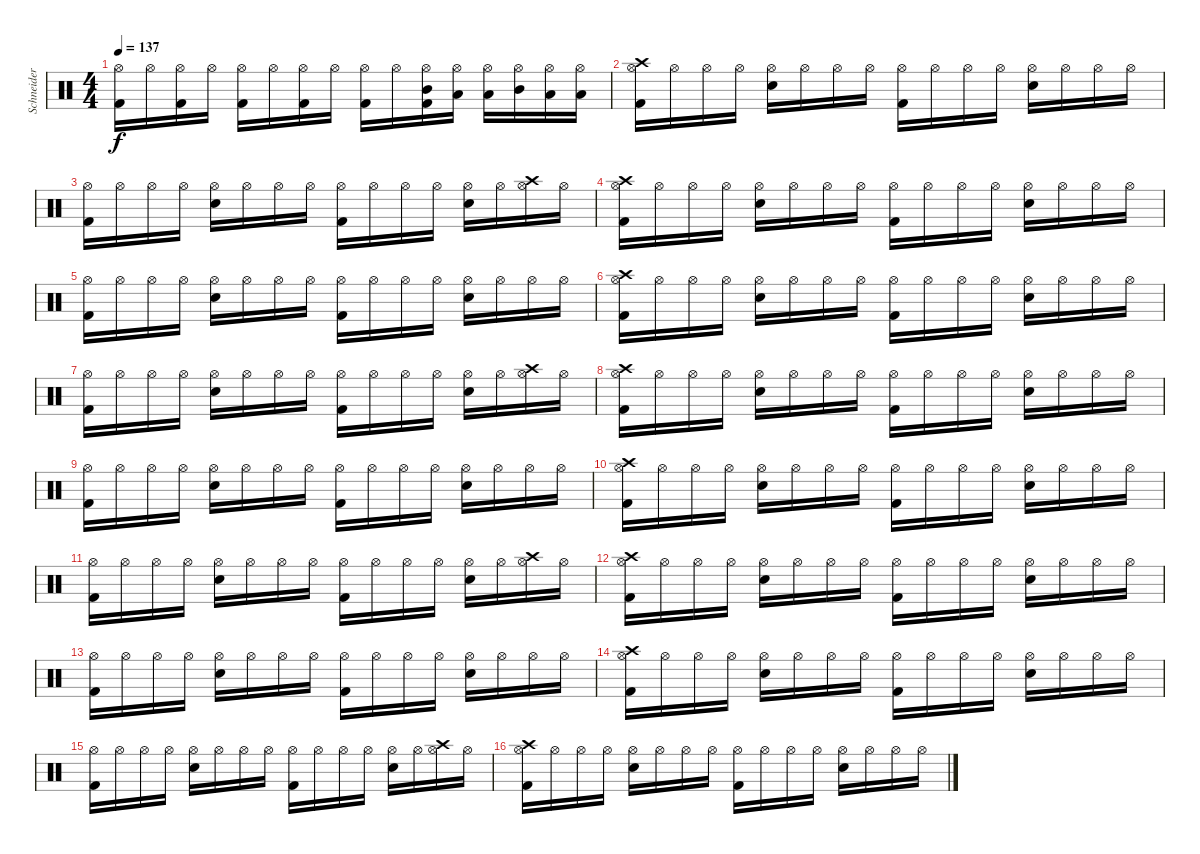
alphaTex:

\track ("Schneider" "Schneider") {instrument percussion}
\staff {score}
\articulation defaults
\ts (4 4)
\tempo 137
\clef neutral
\ks c
("Hi-Hat (open)" "Kick (hit) 2").16{dy f} "Hi-Hat (open)".16 ("Hi-Hat (open)" "Kick (hit) 2").16 "Hi-Hat (open)".16 ("Hi-Hat (open)" "Kick (hit) 2").16 "Hi-Hat (open)".16 ("Hi-Hat (open)" "Kick (hit) 2").16 "Hi-Hat (open)".16 ("Hi-Hat (open)" "Kick (hit) 2").16 "Hi-Hat (open)".16 ("Hi-Hat (open)" "Mid Tom (hit)" "Kick (hit) 2").16 ("Hi-Hat (open)" "Low Tom (hit)").16 ("Hi-Hat (open)" "Low Floor Tom (hit)").16 ("Hi-Hat (open)" "Mid Tom (hit)").16 ("Hi-Hat (open)" "Low Tom (hit)").16 ("Hi-Hat (open)" "Low Floor Tom (hit)").16 |
("Crash high (hit)" "Hi-Hat (open)" "Kick (hit) 2").16 "Hi-Hat (open)".16 "Hi-Hat (open)".16 "Hi-Hat (open)".16 ("Hi-Hat (open)" "Electric Snare (hit)").16 "Hi-Hat (open)".16 "Hi-Hat (open)".16 "Hi-Hat (open)".16 ("Hi-Hat (open)" "Kick (hit) 2").16 "Hi-Hat (open)".16 "Hi-Hat (open)".16 "Hi-Hat (open)".16 ("Hi-Hat (open)" "Electric Snare (hit)").16 "Hi-Hat (open)".16 "Hi-Hat (open)".16 "Hi-Hat (open)".16 |
("Hi-Hat (open)" "Kick (hit) 2").16 "Hi-Hat (open)".16 "Hi-Hat (open)".16 "Hi-Hat (open)".16 ("Hi-Hat (open)" "Electric Snare (hit)").16 "Hi-Hat (open)".16 "Hi-Hat (open)".16 "Hi-Hat (open)".16 ("Hi-Hat (open)" "Kick (hit) 2").16 "Hi-Hat (open)".16 "Hi-Hat (open)".16 "Hi-Hat (open)".16 ("Hi-Hat (open)" "Electric Snare (hit)").16 "Hi-Hat (open)".16 ("Crash high (hit)" "Hi-Hat (open)").16 "Hi-Hat (open)".16 |
("Crash high (hit)" "Hi-Hat (open)" "Kick (hit) 2").16 "Hi-Hat (open)".16 "Hi-Hat (open)".16 "Hi-Hat (open)".16 ("Hi-Hat (open)" "Electric Snare (hit)").16 "Hi-Hat (open)".16 "Hi-Hat (open)".16 "Hi-Hat (open)".16 ("Hi-Hat (open)" "Kick (hit) 2").16 "Hi-Hat (open)".16 "Hi-Hat (open)".16 "Hi-Hat (open)".16 ("Hi-Hat (open)" "Electric Snare (hit)").16 "Hi-Hat (open)".16 "Hi-Hat (open)".16 "Hi-Hat (open)".16 |
("Hi-Hat (open)" "Kick (hit) 2").16 "Hi-Hat (open)".16 "Hi-Hat (open)".16 "Hi-Hat (open)".16 ("Hi-Hat (open)" "Electric Snare (hit)").16 "Hi-Hat (open)".16 "Hi-Hat (open)".16 "Hi-Hat (open)".16 ("Hi-Hat (open)" "Kick (hit) 2").16 "Hi-Hat (open)".16 "Hi-Hat (open)".16 "Hi-Hat (open)".16 ("Hi-Hat (open)" "Electric Snare (hit)").16 "Hi-Hat (open)".16 "Hi-Hat (open)".16 "Hi-Hat (open)".16 |
("Crash high (hit)" "Hi-Hat (open)" "Kick (hit) 2").16 "Hi-Hat (open)".16 "Hi-Hat (open)".16 "Hi-Hat (open)".16 ("Hi-Hat (open)" "Electric Snare (hit)").16 "Hi-Hat (open)".16 "Hi-Hat (open)".16 "Hi-Hat (open)".16 ("Hi-Hat (open)" "Kick (hit) 2").16 "Hi-Hat (open)".16 "Hi-Hat (open)".16 "Hi-Hat (open)".16 ("Hi-Hat (open)" "Electric Snare (hit)").16 "Hi-Hat (open)".16 "Hi-Hat (open)".16 "Hi-Hat (open)".16 |
("Hi-Hat (open)" "Kick (hit) 2").16 "Hi-Hat (open)".16 "Hi-Hat (open)".16 "Hi-Hat (open)".16 ("Hi-Hat (open)" "Electric Snare (hit)").16 "Hi-Hat (open)".16 "Hi-Hat (open)".16 "Hi-Hat (open)".16 ("Hi-Hat (open)" "Kick (hit) 2").16 "Hi-Hat (open)".16 "Hi-Hat (open)".16 "Hi-Hat (open)".16 ("Hi-Hat (open)" "Electric Snare (hit)").16 "Hi-Hat (open)".16 ("Crash high (hit)" "Hi-Hat (open)").16 "Hi-Hat (open)".16 |
("Crash high (hit)" "Hi-Hat (open)" "Kick (hit) 2").16 "Hi-Hat (open)".16 "Hi-Hat (open)".16 "Hi-Hat (open)".16 ("Hi-Hat (open)" "Electric Snare (hit)").16 "Hi-Hat (open)".16 "Hi-Hat (open)".16 "Hi-Hat (open)".16 ("Hi-Hat (open)" "Kick (hit) 2").16 "Hi-Hat (open)".16 "Hi-Hat (open)".16 "Hi-Hat (open)".16 ("Hi-Hat (open)" "Electric Snare (hit)").16 "Hi-Hat (open)".16 "Hi-Hat (open)".16 "Hi-Hat (open)".16 |
("Hi-Hat (open)" "Kick (hit) 2").16 "Hi-Hat (open)".16 "Hi-Hat (open)".16 "Hi-Hat (open)".16 ("Hi-Hat (open)" "Electric Snare (hit)").16 "Hi-Hat (open)".16 "Hi-Hat (open)".16 "Hi-Hat (open)".16 ("Hi-Hat (open)" "Kick (hit) 2").16 "Hi-Hat (open)".16 "Hi-Hat (open)".16 "Hi-Hat (open)".16 ("Hi-Hat (open)" "Electric Snare (hit)").16 "Hi-Hat (open)".16 "Hi-Hat (open)".16 "Hi-Hat (open)".16 |
("Crash high (hit)" "Hi-Hat (open)" "Kick (hit) 2").16 "Hi-Hat (open)".16 "Hi-Hat (open)".16 "Hi-Hat (open)".16 ("Hi-Hat (open)" "Electric Snare (hit)").16 "Hi-Hat (open)".16 "Hi-Hat (open)".16 "Hi-Hat (open)".16 ("Hi-Hat (open)" "Kick (hit) 2").16 "Hi-Hat (open)".16 "Hi-Hat (open)".16 "Hi-Hat (open)".16 ("Hi-Hat (open)" "Electric Snare (hit)").16 "Hi-Hat (open)".16 "Hi-Hat (open)".16 "Hi-Hat (open)".16 |
("Hi-Hat (open)" "Kick (hit) 2").16 "Hi-Hat (open)".16 "Hi-Hat (open)".16 "Hi-Hat (open)".16 ("Hi-Hat (open)" "Electric Snare (hit)").16 "Hi-Hat (open)".16 "Hi-Hat (open)".16 "Hi-Hat (open)".16 ("Hi-Hat (open)" "Kick (hit) 2").16 "Hi-Hat (open)".16 "Hi-Hat (open)".16 "Hi-Hat (open)".16 ("Hi-Hat (open)" "Electric Snare (hit)").16 "Hi-Hat (open)".16 ("Crash high (hit)" "Hi-Hat (open)").16 "Hi-Hat (open)".16 |
("Crash high (hit)" "Hi-Hat (open)" "Kick (hit) 2").16 "Hi-Hat (open)".16 "Hi-Hat (open)".16 "Hi-Hat (open)".16 ("Hi-Hat (open)" "Electric Snare (hit)").16 "Hi-Hat (open)".16 "Hi-Hat (open)".16 "Hi-Hat (open)".16 ("Hi-Hat (open)" "Kick (hit) 2").16 "Hi-Hat (open)".16 "Hi-Hat (open)".16 "Hi-Hat (open)".16 ("Hi-Hat (open)" "Electric Snare (hit)").16 "Hi-Hat (open)".16 "Hi-Hat (open)".16 "Hi-Hat (open)".16 |
("Hi-Hat (open)" "Kick (hit) 2").16 "Hi-Hat (open)".16 "Hi-Hat (open)".16 "Hi-Hat (open)".16 ("Hi-Hat (open)" "Electric Snare (hit)").16 "Hi-Hat (open)".16 "Hi-Hat (open)".16 "Hi-Hat (open)".16 ("Hi-Hat (open)" "Kick (hit) 2").16 "Hi-Hat (open)".16 "Hi-Hat (open)".16 "Hi-Hat (open)".16 ("Hi-Hat (open)" "Electric Snare (hit)").16 "Hi-Hat (open)".16 "Hi-Hat (open)".16 "Hi-Hat (open)".16 |
("Crash high (hit)" "Hi-Hat (open)" "Kick (hit) 2").16 "Hi-Hat (open)".16 "Hi-Hat (open)".16 "Hi-Hat (open)".16 ("Hi-Hat (open)" "Electric Snare (hit)").16 "Hi-Hat (open)".16 "Hi-Hat (open)".16 "Hi-Hat (open)".16 ("Hi-Hat (open)" "Kick (hit) 2").16 "Hi-Hat (open)".16 "Hi-Hat (open)".16 "Hi-Hat (open)".16 ("Hi-Hat (open)" "Electric Snare (hit)").16 "Hi-Hat (open)".16 "Hi-Hat (open)".16 "Hi-Hat (open)".16 |
("Hi-Hat (open)" "Kick (hit) 2").16 "Hi-Hat (open)".16 "Hi-Hat (open)".16 "Hi-Hat (open)".16 ("Hi-Hat (open)" "Electric Snare (hit)").16 "Hi-Hat (open)".16 "Hi-Hat (open)".16 "Hi-Hat (open)".16 ("Hi-Hat (open)" "Kick (hit) 2").16 "Hi-Hat (open)".16 "Hi-Hat (open)".16 "Hi-Hat (open)".16 ("Hi-Hat (open)" "Electric Snare (hit)").16 "Hi-Hat (open)".16 ("Crash high (hit)" "Hi-Hat (open)").16 "Hi-Hat (open)".16 |
("Crash high (hit)" "Hi-Hat (open)" "Kick (hit) 2").16 "Hi-Hat (open)".16 "Hi-Hat (open)".16 "Hi-Hat (open)".16 ("Hi-Hat (open)" "Electric Snare (hit)").16 "Hi-Hat (open)".16 "Hi-Hat (open)".16 "Hi-Hat (open)".16 ("Hi-Hat (open)" "Kick (hit) 2").16 "Hi-Hat (open)".16 "Hi-Hat (open)".16 "Hi-Hat (open)".16 ("Hi-Hat (open)" "Electric Snare (hit)").16 "Hi-Hat (open)".16 "Hi-Hat (open)".16 "Hi-Hat (open)".16
